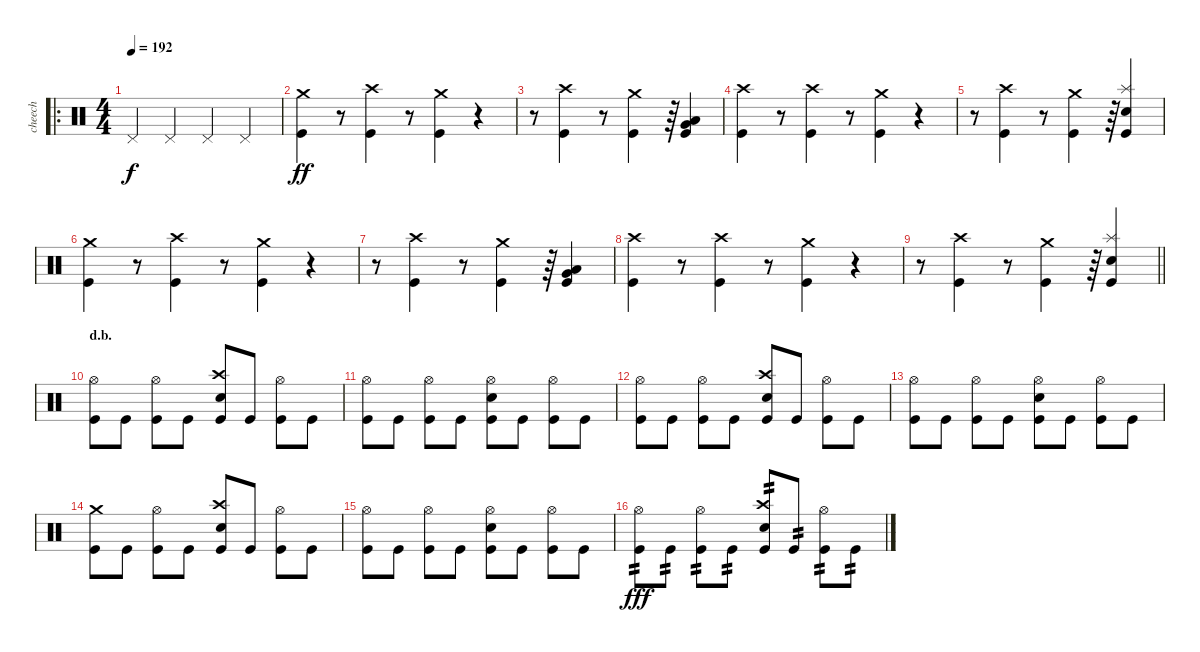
\track ("cheech" "cheech") {instrument percussion}
\staff {score}
\articulation defaults
\ro
\ts (4 4)
\tempo 192
\clef neutral
\ks c "Pedal Hi-Hat (hit)".4{dy f} "Pedal Hi-Hat (hit)".4 "Pedal Hi-Hat (hit)".4 "Pedal Hi-Hat (hit)".4
|
("Crash medium (hit)" "Kick (hit)").4{dy ff} r.8 ("Crash high (hit)" "Kick (hit)").4 r.8 ("Crash medium (hit)" "Kick (hit)").4 r.4 |
r.8 ("Crash high (hit)" "Kick (hit)").4 r.8 ("Crash medium (hit)" "Kick (hit)").4 r.64 ("Very Low Tom (hit)" "Low Floor Tom (hit)" "Kick (hit)").4 |
("Crash high (hit)" "Kick (hit)").4 r.8 ("Crash high (hit)" "Kick (hit)").4 r.8 ("Crash medium (hit)" "Kick (hit)").4 r.4 |
r.8 ("Crash high (hit)" "Kick (hit)").4 r.8 ("Crash medium (hit)" "Kick (hit)").4 r.64 ("Splash (hit)" "Electric Snare (hit)" "Kick (hit)").4 |
("Crash medium (hit)" "Kick (hit)").4 r.8 ("Crash high (hit)" "Kick (hit)").4 r.8 ("Crash medium (hit)" "Kick (hit)").4 r.4 |
r.8 ("Crash high (hit)" "Kick (hit)").4 r.8 ("Crash medium (hit)" "Kick (hit)").4 r.64 ("Very Low Tom (hit)" "Low Floor Tom (hit)" "Kick (hit)").4 |
("Crash high (hit)" "Kick (hit)").4 r.8 ("Crash high (hit)" "Kick (hit)").4 r.8 ("Crash medium (hit)" "Kick (hit)").4 r.4 |
\barLineRight lightlight
r.8 ("Crash high (hit)" "Kick (hit)").4 r.8 ("Crash medium (hit)" "Kick (hit)").4 r.64 ("Splash (hit)" "Electric Snare (hit)" "Kick (hit)").4 |
\section ("" "d.b.")
("Hi-Hat (open)" "Kick (hit)").8 "Kick (hit)".8 ("Hi-Hat (open)" "Kick (hit)").8 "Kick (hit)".8 ("Crash high (hit)" "Electric Snare (hit)" "Kick (hit)").8 "Kick (hit)".8 ("Hi-Hat (open)" "Kick (hit)").8 "Kick (hit)".8 |
("Hi-Hat (open)" "Kick (hit)").8 "Kick (hit)".8 ("Hi-Hat (open)" "Kick (hit)").8 "Kick (hit)".8 ("Hi-Hat (open)" "Electric Snare (hit)" "Kick (hit)").8 "Kick (hit)".8 ("Hi-Hat (open)" "Kick (hit)").8 "Kick (hit)".8 |
("Hi-Hat (open)" "Kick (hit)").8 "Kick (hit)".8 ("Hi-Hat (open)" "Kick (hit)").8 "Kick (hit)".8 ("Crash high (hit)" "Electric Snare (hit)" "Kick (hit)").8 "Kick (hit)".8 ("Hi-Hat (open)" "Kick (hit)").8 "Kick (hit)".8 |
("Hi-Hat (open)" "Kick (hit)").8 "Kick (hit)".8 ("Hi-Hat (open)" "Kick (hit)").8 "Kick (hit)".8 ("Hi-Hat (open)" "Electric Snare (hit)" "Kick (hit)").8 "Kick (hit)".8 ("Hi-Hat (open)" "Kick (hit)").8 "Kick (hit)".8 |
("Crash medium (hit)" "Kick (hit)").8 "Kick (hit)".8 ("Hi-Hat (open)" "Kick (hit)").8 "Kick (hit)".8 ("Crash high (hit)" "Electric Snare (hit)" "Kick (hit)").8 "Kick (hit)".8 ("Hi-Hat (open)" "Kick (hit)").8 "Kick (hit)".8 |
("Hi-Hat (open)" "Kick (hit)").8 "Kick (hit)".8 ("Hi-Hat (open)" "Kick (hit)").8 "Kick (hit)".8 ("Hi-Hat (open)" "Electric Snare (hit)" "Kick (hit)").8 "Kick (hit)".8 ("Hi-Hat (open)" "Kick (hit)").8 "Kick (hit)".8 |
("Hi-Hat (open)" "Kick (hit)").8{tp 2 dy fff} "Kick (hit)".8{tp 2} ("Hi-Hat (open)" "Kick (hit)").8{tp 2} "Kick (hit)".8{tp 2} ("Crash high (hit)" "Electric Snare (hit)" "Kick (hit)").8{tp 2} "Kick (hit)".8{tp 2} ("Hi-Hat (open)" "Kick (hit)").8{tp 2} "Kick (hit)".8{tp 2}
